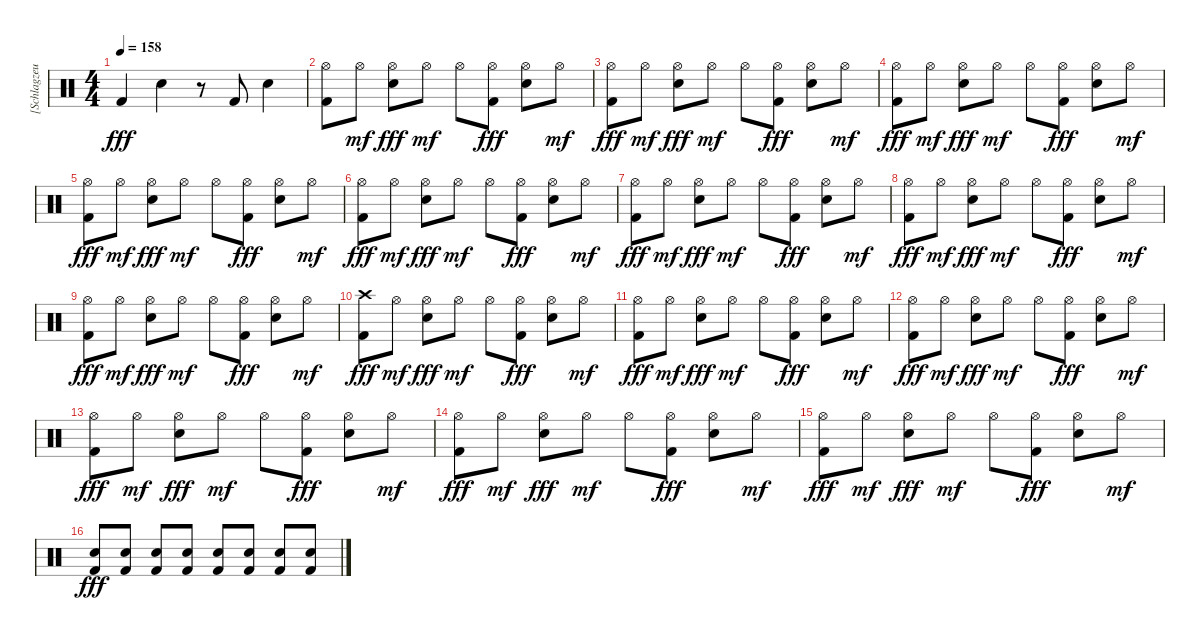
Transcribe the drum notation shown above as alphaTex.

\track ("[Schlagzeug]" "[Schlagzeu") {instrument percussion}
\staff {score}
\articulation defaults
\ts (4 4)
\tempo 158
\clef neutral
\ks c "Kick (hit) 2".4{dy fff} "Electric Snare (hit)".4
r.8 "Kick (hit) 2".8 "Electric Snare (hit)".4 |
("Hi-Hat (open)" "Kick (hit) 2").8 "Hi-Hat (open)".8{dy mf} ("Hi-Hat (open)" "Electric Snare (hit)").8{dy fff} "Hi-Hat (open)".8{dy mf} "Hi-Hat (open)".8 ("Hi-Hat (open)" "Kick (hit) 2").8{dy fff} ("Hi-Hat (open)" "Electric Snare (hit)").8 "Hi-Hat (open)".8{dy mf} |
("Hi-Hat (open)" "Kick (hit) 2").8{dy fff} "Hi-Hat (open)".8{dy mf} ("Hi-Hat (open)" "Electric Snare (hit)").8{dy fff} "Hi-Hat (open)".8{dy mf} "Hi-Hat (open)".8 ("Hi-Hat (open)" "Kick (hit) 2").8{dy fff} ("Hi-Hat (open)" "Electric Snare (hit)").8 "Hi-Hat (open)".8{dy mf} |
("Hi-Hat (open)" "Kick (hit) 2").8{dy fff} "Hi-Hat (open)".8{dy mf} ("Hi-Hat (open)" "Electric Snare (hit)").8{dy fff} "Hi-Hat (open)".8{dy mf} "Hi-Hat (open)".8 ("Hi-Hat (open)" "Kick (hit) 2").8{dy fff} ("Hi-Hat (open)" "Electric Snare (hit)").8 "Hi-Hat (open)".8{dy mf} |
("Hi-Hat (open)" "Kick (hit) 2").8{dy fff} "Hi-Hat (open)".8{dy mf} ("Hi-Hat (open)" "Electric Snare (hit)").8{dy fff} "Hi-Hat (open)".8{dy mf} "Hi-Hat (open)".8 ("Hi-Hat (open)" "Kick (hit) 2").8{dy fff} ("Hi-Hat (open)" "Electric Snare (hit)").8 "Hi-Hat (open)".8{dy mf} |
("Hi-Hat (open)" "Kick (hit) 2").8{dy fff} "Hi-Hat (open)".8{dy mf} ("Hi-Hat (open)" "Electric Snare (hit)").8{dy fff} "Hi-Hat (open)".8{dy mf} "Hi-Hat (open)".8 ("Hi-Hat (open)" "Kick (hit) 2").8{dy fff} ("Hi-Hat (open)" "Electric Snare (hit)").8 "Hi-Hat (open)".8{dy mf} |
("Hi-Hat (open)" "Kick (hit) 2").8{dy fff} "Hi-Hat (open)".8{dy mf} ("Hi-Hat (open)" "Electric Snare (hit)").8{dy fff} "Hi-Hat (open)".8{dy mf} "Hi-Hat (open)".8 ("Hi-Hat (open)" "Kick (hit) 2").8{dy fff} ("Hi-Hat (open)" "Electric Snare (hit)").8 "Hi-Hat (open)".8{dy mf} |
("Hi-Hat (open)" "Kick (hit) 2").8{dy fff} "Hi-Hat (open)".8{dy mf} ("Hi-Hat (open)" "Electric Snare (hit)").8{dy fff} "Hi-Hat (open)".8{dy mf} "Hi-Hat (open)".8 ("Hi-Hat (open)" "Kick (hit) 2").8{dy fff} ("Hi-Hat (open)" "Electric Snare (hit)").8 "Hi-Hat (open)".8{dy mf} |
("Hi-Hat (open)" "Kick (hit) 2").8{dy fff} "Hi-Hat (open)".8{dy mf} ("Hi-Hat (open)" "Electric Snare (hit)").8{dy fff} "Hi-Hat (open)".8{dy mf} "Hi-Hat (open)".8 ("Hi-Hat (open)" "Kick (hit) 2").8{dy fff} ("Hi-Hat (open)" "Electric Snare (hit)").8 "Hi-Hat (open)".8{dy mf} |
("Crash high (hit)" "Kick (hit) 2").8{dy fff} "Hi-Hat (open)".8{dy mf} ("Hi-Hat (open)" "Electric Snare (hit)").8{dy fff} "Hi-Hat (open)".8{dy mf} "Hi-Hat (open)".8 ("Hi-Hat (open)" "Kick (hit) 2").8{dy fff} ("Hi-Hat (open)" "Electric Snare (hit)").8 "Hi-Hat (open)".8{dy mf} |
("Hi-Hat (open)" "Kick (hit) 2").8{dy fff} "Hi-Hat (open)".8{dy mf} ("Hi-Hat (open)" "Electric Snare (hit)").8{dy fff} "Hi-Hat (open)".8{dy mf} "Hi-Hat (open)".8 ("Hi-Hat (open)" "Kick (hit) 2").8{dy fff} ("Hi-Hat (open)" "Electric Snare (hit)").8 "Hi-Hat (open)".8{dy mf} |
("Hi-Hat (open)" "Kick (hit) 2").8{dy fff} "Hi-Hat (open)".8{dy mf} ("Hi-Hat (open)" "Electric Snare (hit)").8{dy fff} "Hi-Hat (open)".8{dy mf} "Hi-Hat (open)".8 ("Hi-Hat (open)" "Kick (hit) 2").8{dy fff} ("Hi-Hat (open)" "Electric Snare (hit)").8 "Hi-Hat (open)".8{dy mf} |
("Hi-Hat (open)" "Kick (hit) 2").8{dy fff} "Hi-Hat (open)".8{dy mf} ("Hi-Hat (open)" "Electric Snare (hit)").8{dy fff} "Hi-Hat (open)".8{dy mf} "Hi-Hat (open)".8 ("Hi-Hat (open)" "Kick (hit) 2").8{dy fff} ("Hi-Hat (open)" "Electric Snare (hit)").8 "Hi-Hat (open)".8{dy mf} |
("Hi-Hat (open)" "Kick (hit) 2").8{dy fff} "Hi-Hat (open)".8{dy mf} ("Hi-Hat (open)" "Electric Snare (hit)").8{dy fff} "Hi-Hat (open)".8{dy mf} "Hi-Hat (open)".8 ("Hi-Hat (open)" "Kick (hit) 2").8{dy fff} ("Hi-Hat (open)" "Electric Snare (hit)").8 "Hi-Hat (open)".8{dy mf} |
("Hi-Hat (open)" "Kick (hit) 2").8{dy fff} "Hi-Hat (open)".8{dy mf} ("Hi-Hat (open)" "Electric Snare (hit)").8{dy fff} "Hi-Hat (open)".8{dy mf} "Hi-Hat (open)".8 ("Hi-Hat (open)" "Kick (hit) 2").8{dy fff} ("Hi-Hat (open)" "Electric Snare (hit)").8 "Hi-Hat (open)".8{dy mf} |
("Electric Snare (hit)" "Kick (hit) 2").8{dy fff} ("Electric Snare (hit)" "Kick (hit) 2").8 ("Electric Snare (hit)" "Kick (hit) 2").8 ("Electric Snare (hit)" "Kick (hit) 2").8 ("Electric Snare (hit)" "Kick (hit) 2").8 ("Electric Snare (hit)" "Kick (hit) 2").8 ("Electric Snare (hit)" "Kick (hit) 2").8 ("Electric Snare (hit)" "Kick (hit) 2").8
